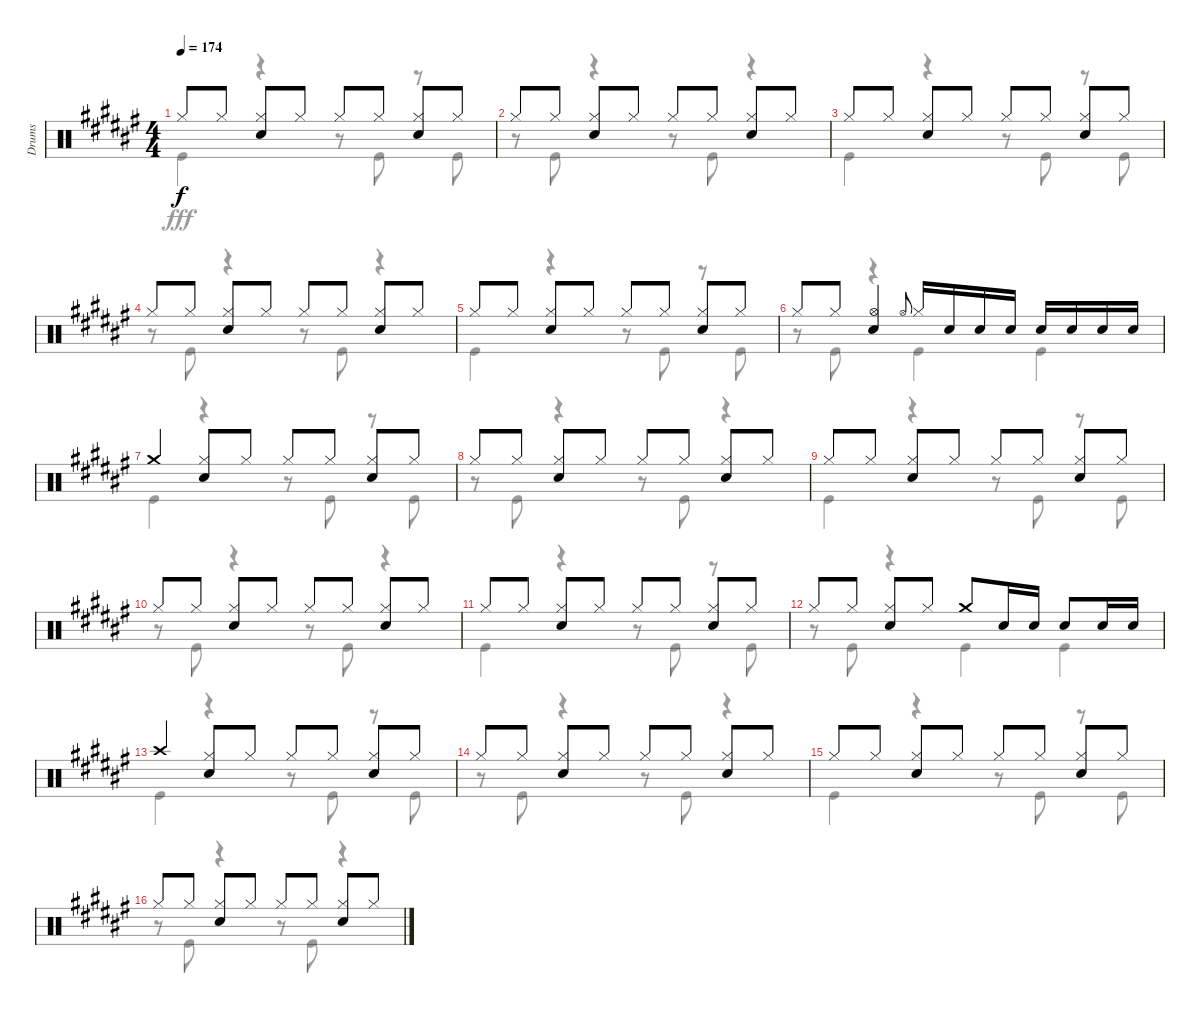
\track ("Drums" "Drums") {instrument percussion}
\staff {score}
\articulation defaults
\voice
\ts (4 4)
\tempo 174
\clef neutral
\ks f# "Hi-Hat (closed)".8{dy f} "Hi-Hat (closed)".8
("Hi-Hat (closed)" "Snare (hit) 2").8 "Hi-Hat (closed)".8 "Hi-Hat (closed)".8 "Hi-Hat (closed)".8 ("Hi-Hat (closed)" "Snare (hit) 2").8 "Hi-Hat (closed)".8 |
"Hi-Hat (closed)".8 "Hi-Hat (closed)".8 ("Hi-Hat (closed)" "Snare (hit) 2").8 "Hi-Hat (closed)".8 "Hi-Hat (closed)".8 "Hi-Hat (closed)".8 ("Hi-Hat (closed)" "Snare (hit) 2").8 "Hi-Hat (closed)".8 |
"Hi-Hat (closed)".8 "Hi-Hat (closed)".8 ("Hi-Hat (closed)" "Snare (hit) 2").8 "Hi-Hat (closed)".8 "Hi-Hat (closed)".8 "Hi-Hat (closed)".8 ("Hi-Hat (closed)" "Snare (hit) 2").8 "Hi-Hat (closed)".8 |
"Hi-Hat (closed)".8 "Hi-Hat (closed)".8 ("Hi-Hat (closed)" "Snare (hit) 2").8 "Hi-Hat (closed)".8 "Hi-Hat (closed)".8 "Hi-Hat (closed)".8 ("Hi-Hat (closed)" "Snare (hit) 2").8 "Hi-Hat (closed)".8 |
"Hi-Hat (closed)".8 "Hi-Hat (closed)".8 ("Hi-Hat (closed)" "Snare (hit) 2").8 "Hi-Hat (closed)".8 "Hi-Hat (closed)".8 "Hi-Hat (closed)".8 ("Hi-Hat (closed)" "Snare (hit) 2").8 "Hi-Hat (closed)".8 |
"Hi-Hat (closed)".8 "Hi-Hat (closed)".8 ("Hi-Hat (open)" "Snare (hit) 2").4 "Hi-Hat (open)".8{gr onbeat} "Hi-Hat (closed)".16 "Snare (hit) 2".16 "Snare (hit) 2".16 "Snare (hit) 2".16 "Snare (hit) 2".16 "Snare (hit) 2".16 "Snare (hit) 2".16 "Snare (hit) 2".16 |
"Crash medium (hit)".4 ("Hi-Hat (closed)" "Snare (hit) 2").8 "Hi-Hat (closed)".8 "Hi-Hat (closed)".8 "Hi-Hat (closed)".8 ("Hi-Hat (closed)" "Snare (hit) 2").8 "Hi-Hat (closed)".8 |
"Hi-Hat (closed)".8 "Hi-Hat (closed)".8 ("Hi-Hat (closed)" "Snare (hit) 2").8 "Hi-Hat (closed)".8 "Hi-Hat (closed)".8 "Hi-Hat (closed)".8 ("Hi-Hat (closed)" "Snare (hit) 2").8 "Hi-Hat (closed)".8 |
"Hi-Hat (closed)".8 "Hi-Hat (closed)".8 ("Hi-Hat (closed)" "Snare (hit) 2").8 "Hi-Hat (closed)".8 "Hi-Hat (closed)".8 "Hi-Hat (closed)".8 ("Hi-Hat (closed)" "Snare (hit) 2").8 "Hi-Hat (closed)".8 |
"Hi-Hat (closed)".8 "Hi-Hat (closed)".8 ("Hi-Hat (closed)" "Snare (hit) 2").8 "Hi-Hat (closed)".8 "Hi-Hat (closed)".8 "Hi-Hat (closed)".8 ("Hi-Hat (closed)" "Snare (hit) 2").8 "Hi-Hat (closed)".8 |
"Hi-Hat (closed)".8 "Hi-Hat (closed)".8 ("Hi-Hat (closed)" "Snare (hit) 2").8 "Hi-Hat (closed)".8 "Hi-Hat (closed)".8 "Hi-Hat (closed)".8 ("Hi-Hat (closed)" "Snare (hit) 2").8 "Hi-Hat (closed)".8 |
"Hi-Hat (closed)".8 "Hi-Hat (closed)".8 ("Hi-Hat (closed)" "Snare (hit) 2").8 "Hi-Hat (closed)".8 "Crash medium (hit)".8 "Snare (hit) 2".16 "Snare (hit) 2".16 "Snare (hit) 2".8 "Snare (hit) 2".16 "Snare (hit) 2".16 |
"Crash high (hit)".4 ("Hi-Hat (closed)" "Snare (hit) 2").8 "Hi-Hat (closed)".8 "Hi-Hat (closed)".8 "Hi-Hat (closed)".8 ("Hi-Hat (closed)" "Snare (hit) 2").8 "Hi-Hat (closed)".8 |
"Hi-Hat (closed)".8 "Hi-Hat (closed)".8 ("Hi-Hat (closed)" "Snare (hit) 2").8 "Hi-Hat (closed)".8 "Hi-Hat (closed)".8 "Hi-Hat (closed)".8 ("Hi-Hat (closed)" "Snare (hit) 2").8 "Hi-Hat (closed)".8 |
"Hi-Hat (closed)".8 "Hi-Hat (closed)".8 ("Hi-Hat (closed)" "Snare (hit) 2").8 "Hi-Hat (closed)".8 "Hi-Hat (closed)".8 "Hi-Hat (closed)".8 ("Hi-Hat (closed)" "Snare (hit) 2").8 "Hi-Hat (closed)".8 |
"Hi-Hat (closed)".8 "Hi-Hat (closed)".8 ("Hi-Hat (closed)" "Snare (hit) 2").8 "Hi-Hat (closed)".8 "Hi-Hat (closed)".8 "Hi-Hat (closed)".8 ("Hi-Hat (closed)" "Snare (hit) 2").8 "Hi-Hat (closed)".8
\voice
\clef neutral
\ottava regular
\simile none
\ks f# "Kick (hit)".4{dy fff}
r.4 r.8 "Kick (hit)".8 r.8 "Kick (hit)".8 |
r.8 "Kick (hit)".8 r.4 r.8 "Kick (hit)".8 r.4 |
"Kick (hit)".4 r.4 r.8 "Kick (hit)".8 r.8 "Kick (hit)".8 |
r.8 "Kick (hit)".8 r.4 r.8 "Kick (hit)".8 r.4 |
"Kick (hit)".4 r.4 r.8 "Kick (hit)".8 r.8 "Kick (hit)".8 |
r.8 "Kick (hit)".8 r.4 "Kick (hit)".4 "Kick (hit)".4 |
"Kick (hit)".4 r.4 r.8 "Kick (hit)".8 r.8 "Kick (hit)".8 |
r.8 "Kick (hit)".8 r.4 r.8 "Kick (hit)".8 r.4 |
"Kick (hit)".4 r.4 r.8 "Kick (hit)".8 r.8 "Kick (hit)".8 |
r.8 "Kick (hit)".8 r.4 r.8 "Kick (hit)".8 r.4 |
"Kick (hit)".4 r.4 r.8 "Kick (hit)".8 r.8 "Kick (hit)".8 |
r.8 "Kick (hit)".8 r.4 "Kick (hit)".4 "Kick (hit)".4 |
"Kick (hit)".4 r.4 r.8 "Kick (hit)".8 r.8 "Kick (hit)".8 |
r.8 "Kick (hit)".8 r.4 r.8 "Kick (hit)".8 r.4 |
"Kick (hit)".4 r.4 r.8 "Kick (hit)".8 r.8 "Kick (hit)".8 |
r.8 "Kick (hit)".8 r.4 r.8 "Kick (hit)".8 r.4
